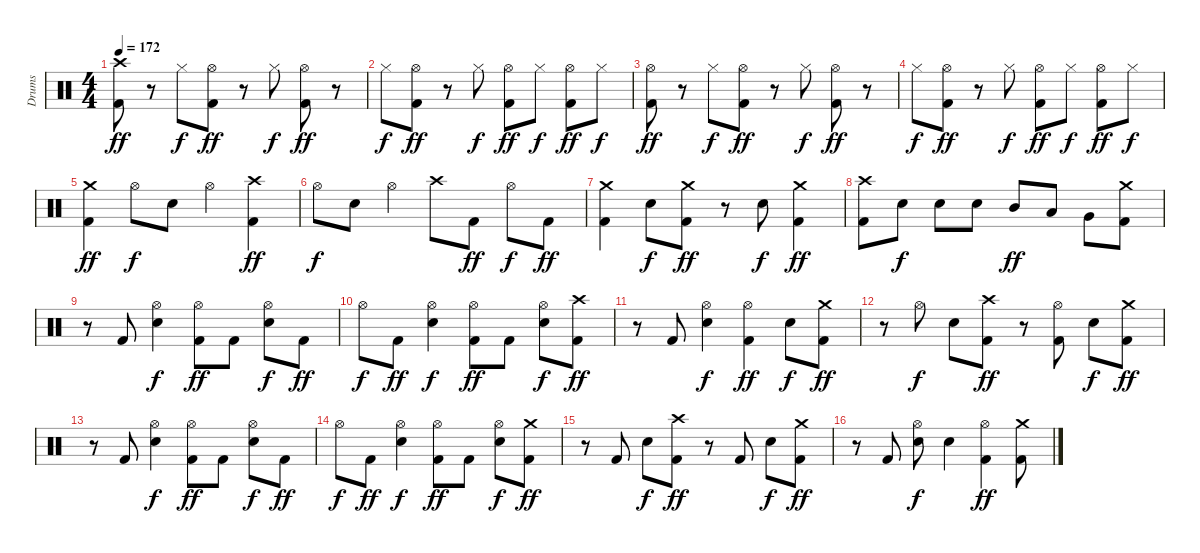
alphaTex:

\track ("Drums" "Drums") {instrument percussion}
\staff {score}
\articulation defaults
\ts (4 4)
\tempo 172
\clef neutral
\ks c
("Crash high (hit)" "Kick (hit) 2").8{dy ff} r.8 "Hi-Hat (closed)".8{dy f} ("Hi-Hat (open)" "Kick (hit) 2").8{dy ff} r.8 "Hi-Hat (closed)".8{dy f} ("Hi-Hat (open)" "Kick (hit) 2").8{dy ff} r.8 |
"Hi-Hat (closed)".8{dy f} ("Hi-Hat (open)" "Kick (hit) 2").8{dy ff} r.8 "Hi-Hat (closed)".8{dy f} ("Hi-Hat (open)" "Kick (hit) 2").8{dy ff} "Hi-Hat (closed)".8{dy f} ("Hi-Hat (open)" "Kick (hit) 2").8{dy ff} "Hi-Hat (closed)".8{dy f} |
("Hi-Hat (open)" "Kick (hit) 2").8{dy ff} r.8 "Hi-Hat (closed)".8{dy f} ("Hi-Hat (open)" "Kick (hit) 2").8{dy ff} r.8 "Hi-Hat (closed)".8{dy f} ("Hi-Hat (open)" "Kick (hit) 2").8{dy ff} r.8 |
"Hi-Hat (closed)".8{dy f} ("Hi-Hat (open)" "Kick (hit) 2").8{dy ff} r.8 "Hi-Hat (closed)".8{dy f} ("Hi-Hat (open)" "Kick (hit) 2").8{dy ff} "Hi-Hat (closed)".8{dy f} ("Hi-Hat (open)" "Kick (hit) 2").8{dy ff} "Hi-Hat (closed)".8{dy f} |
("Crash medium (hit)" "Kick (hit) 2").4{dy ff} "Hi-Hat (open)".8{dy f} "Electric Snare (hit)".8 "Hi-Hat (open)".4 ("Crash high (hit)" "Kick (hit) 2").4{dy ff} |
"Hi-Hat (open)".8{dy f} "Electric Snare (hit)".8 "Hi-Hat (open)".4 "Crash high (hit)".8 "Kick (hit) 2".8{dy ff} "Hi-Hat (open)".8{dy f} "Kick (hit) 2".8{dy ff} |
("Crash medium (hit)" "Kick (hit) 2").4 "Electric Snare (hit)".8{dy f} ("Crash medium (hit)" "Kick (hit) 2").8{dy ff} r.8 "Electric Snare (hit)".8{dy f} ("Crash medium (hit)" "Kick (hit) 2").4{dy ff} |
("Crash high (hit)" "Kick (hit) 2").8 "Electric Snare (hit)".8{dy f} "Electric Snare (hit)".8 "Electric Snare (hit)".8 "Mid Tom (hit)".8{dy ff} "Low Tom (hit)".8 "Very Low Tom (hit)".8 ("Crash medium (hit)" "Kick (hit) 2").8 |
r.8 "Kick (hit) 2".8 ("Hi-Hat (open)" "Electric Snare (hit)").4{dy f} ("Hi-Hat (open)" "Kick (hit) 2").8{dy ff} "Kick (hit) 2".8 ("Hi-Hat (open)" "Electric Snare (hit)").8{dy f} "Kick (hit) 2".8{dy ff} |
"Hi-Hat (open)".8{dy f} "Kick (hit) 2".8{dy ff} ("Hi-Hat (open)" "Electric Snare (hit)").4{dy f} ("Hi-Hat (open)" "Kick (hit) 2").8{dy ff} "Kick (hit) 2".8 ("Hi-Hat (open)" "Electric Snare (hit)").8{dy f} ("Crash high (hit)" "Kick (hit) 2").8{dy ff} |
r.8 "Kick (hit) 2".8 ("Hi-Hat (open)" "Electric Snare (hit)").4{dy f} ("Hi-Hat (open)" "Kick (hit) 2").4{dy ff} "Electric Snare (hit)".8{dy f} ("Crash medium (hit)" "Kick (hit) 2").8{dy ff} |
r.8 "Hi-Hat (open)".8{dy f} "Electric Snare (hit)".8 ("Crash high (hit)" "Kick (hit) 2").8{dy ff} r.8 ("Hi-Hat (open)" "Kick (hit) 2").8 "Electric Snare (hit)".8{dy f} ("Crash medium (hit)" "Kick (hit) 2").8{dy ff} |
r.8 "Kick (hit) 2".8 ("Hi-Hat (open)" "Electric Snare (hit)").4{dy f} ("Hi-Hat (open)" "Kick (hit) 2").8{dy ff} "Kick (hit) 2".8 ("Hi-Hat (open)" "Electric Snare (hit)").8{dy f} "Kick (hit) 2".8{dy ff} |
"Hi-Hat (open)".8{dy f} "Kick (hit) 2".8{dy ff} ("Hi-Hat (open)" "Electric Snare (hit)").4{dy f} ("Hi-Hat (open)" "Kick (hit) 2").8{dy ff} "Kick (hit) 2".8 ("Hi-Hat (open)" "Electric Snare (hit)").8{dy f} ("Crash medium (hit)" "Kick (hit) 2").8{dy ff} |
r.8 "Kick (hit) 2".8 "Electric Snare (hit)".8{dy f} ("Crash high (hit)" "Kick (hit) 2").8{dy ff} r.8 "Kick (hit) 2".8 "Electric Snare (hit)".8{dy f} ("Crash medium (hit)" "Kick (hit) 2").8{dy ff} |
r.8 "Kick (hit) 2".8 ("Hi-Hat (open)" "Electric Snare (hit)").8{dy f} "Electric Snare (hit)".4 ("Hi-Hat (open)" "Kick (hit) 2").4{dy ff} ("Crash medium (hit)" "Kick (hit) 2").8
